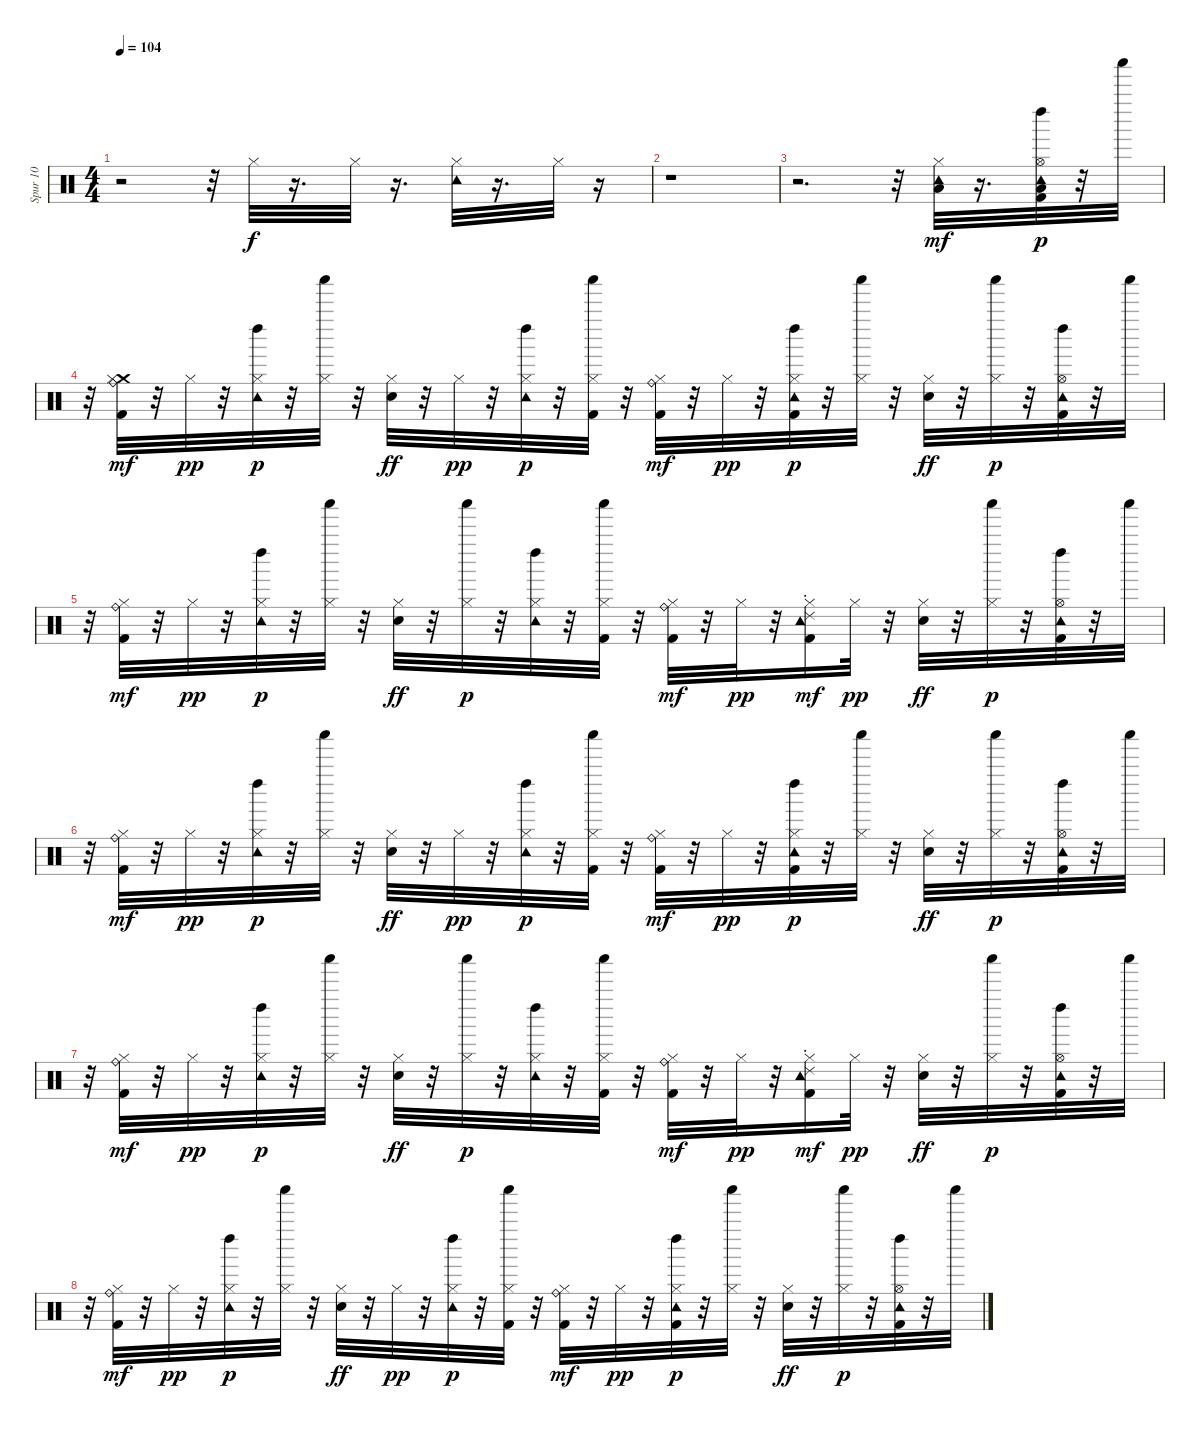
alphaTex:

\track ("Spur 10" "Spur 10") {instrument percussion}
\staff {score}
\articulation defaults
\ts (4 4)
\tempo 104
\clef neutral
\ks c
r.2{dy mp} r.32 "Hi-Hat (closed)".32{dy f} r.16{d} "Hi-Hat (closed)".32 r.16{d} ("Hi-Hat (closed)" "Tambourine (hit)").32 r.16{d} "Hi-Hat (closed)".32 r.16 |
r.1 |
r.2{d} r.32 ("Hi-Hat (closed)" "Low Tom (hit)" "Tambourine (hit)").32{dy mf} r.16{d} ("Low Floor Tom (hit)" "Hi-Hat (open)" "Tambourine (hit)" "Kick (hit) 2" "Left Maraca (hit)").32{dy p} r.32 "Shaker (hit)".32 |
r.32 ("Crash medium (hit)" "Hi-Hat (closed)" "Ride (bell)" "Kick (hit) 2").32{dy mf} r.32 "Hi-Hat (closed)".32{dy pp} r.32 ("Hi-Hat (closed)" "Tambourine (hit)" "Left Maraca (hit)").32{dy p} r.32 ("Hi-Hat (closed)" "Shaker (hit)").32 r.32 ("Hi-Hat (closed)" "Snare (hit) 2").32{dy ff} r.32 "Hi-Hat (closed)".32{dy pp} r.32 ("Hi-Hat (closed)" "Tambourine (hit)" "Left Maraca (hit)").32{dy p} r.32 ("Hi-Hat (closed)" "Kick (hit) 2" "Shaker (hit)").32 r.32 ("Hi-Hat (closed)" "Ride (bell)" "Kick (hit) 2").32{dy mf} r.32 "Hi-Hat (closed)".32{dy pp} r.32 ("Hi-Hat (closed)" "Tambourine (hit)" "Kick (hit) 2" "Left Maraca (hit)").32{dy p} r.32 ("Hi-Hat (closed)" "Shaker (hit)").32 r.32 ("Hi-Hat (closed)" "Snare (hit) 2").32{dy ff} r.32 ("Hi-Hat (closed)" "Shaker (hit)").32{dy p} r.32 ("Hi-Hat (open)" "Tambourine (hit)" "Kick (hit) 2" "Left Maraca (hit)").32 r.32 "Shaker (hit)".32 |
r.32 ("Hi-Hat (closed)" "Ride (bell)" "Kick (hit) 2").32{dy mf} r.32 "Hi-Hat (closed)".32{dy pp} r.32 ("Hi-Hat (closed)" "Tambourine (hit)" "Left Maraca (hit)").32{dy p} r.32 ("Hi-Hat (closed)" "Shaker (hit)").32 r.32 ("Hi-Hat (closed)" "Snare (hit) 2").32{dy ff} r.32 ("Hi-Hat (closed)" "Shaker (hit)").32{dy p} r.32 ("Hi-Hat (closed)" "Tambourine (hit)" "Left Maraca (hit)").32 r.32 ("Hi-Hat (closed)" "Kick (hit) 2" "Shaker (hit)").32 r.32 ("Hi-Hat (closed)" "Ride (bell)" "Kick (hit) 2").32{dy mf} r.32 "Hi-Hat (closed)".32{dy pp} r.32 ("Ride (choke) 2" "Hi-Hat (closed)" "Tambourine (hit)" "Kick (hit) 2").16{dy mf} "Hi-Hat (closed)".32{dy pp} r.32 ("Hi-Hat (closed)" "Snare (hit) 2").32{dy ff} r.32 ("Hi-Hat (closed)" "Shaker (hit)").32{dy p} r.32 ("Hi-Hat (open)" "Tambourine (hit)" "Kick (hit) 2" "Left Maraca (hit)").32 r.32 "Shaker (hit)".32 |
r.32 ("Hi-Hat (closed)" "Ride (bell)" "Kick (hit) 2").32{dy mf} r.32 "Hi-Hat (closed)".32{dy pp} r.32 ("Hi-Hat (closed)" "Tambourine (hit)" "Left Maraca (hit)").32{dy p} r.32 ("Hi-Hat (closed)" "Shaker (hit)").32 r.32 ("Hi-Hat (closed)" "Snare (hit) 2").32{dy ff} r.32 "Hi-Hat (closed)".32{dy pp} r.32 ("Hi-Hat (closed)" "Tambourine (hit)" "Left Maraca (hit)").32{dy p} r.32 ("Hi-Hat (closed)" "Kick (hit) 2" "Shaker (hit)").32 r.32 ("Hi-Hat (closed)" "Ride (bell)" "Kick (hit) 2").32{dy mf} r.32 "Hi-Hat (closed)".32{dy pp} r.32 ("Hi-Hat (closed)" "Tambourine (hit)" "Kick (hit) 2" "Left Maraca (hit)").32{dy p} r.32 ("Hi-Hat (closed)" "Shaker (hit)").32 r.32 ("Hi-Hat (closed)" "Snare (hit) 2").32{dy ff} r.32 ("Hi-Hat (closed)" "Shaker (hit)").32{dy p} r.32 ("Hi-Hat (open)" "Tambourine (hit)" "Kick (hit) 2" "Left Maraca (hit)").32 r.32 "Shaker (hit)".32 |
r.32 ("Hi-Hat (closed)" "Ride (bell)" "Kick (hit) 2").32{dy mf} r.32 "Hi-Hat (closed)".32{dy pp} r.32 ("Hi-Hat (closed)" "Tambourine (hit)" "Left Maraca (hit)").32{dy p} r.32 ("Hi-Hat (closed)" "Shaker (hit)").32 r.32 ("Hi-Hat (closed)" "Snare (hit) 2").32{dy ff} r.32 ("Hi-Hat (closed)" "Shaker (hit)").32{dy p} r.32 ("Hi-Hat (closed)" "Tambourine (hit)" "Left Maraca (hit)").32 r.32 ("Hi-Hat (closed)" "Kick (hit) 2" "Shaker (hit)").32 r.32 ("Hi-Hat (closed)" "Ride (bell)" "Kick (hit) 2").32{dy mf} r.32 "Hi-Hat (closed)".32{dy pp} r.32 ("Ride (choke) 2" "Hi-Hat (closed)" "Tambourine (hit)" "Kick (hit) 2").16{dy mf} "Hi-Hat (closed)".32{dy pp} r.32 ("Hi-Hat (closed)" "Snare (hit) 2").32{dy ff} r.32 ("Hi-Hat (closed)" "Shaker (hit)").32{dy p} r.32 ("Hi-Hat (open)" "Tambourine (hit)" "Kick (hit) 2" "Left Maraca (hit)").32 r.32 "Shaker (hit)".32 |
r.32 ("Hi-Hat (closed)" "Ride (bell)" "Kick (hit) 2").32{dy mf} r.32 "Hi-Hat (closed)".32{dy pp} r.32 ("Hi-Hat (closed)" "Tambourine (hit)" "Left Maraca (hit)").32{dy p} r.32 ("Hi-Hat (closed)" "Shaker (hit)").32 r.32 ("Hi-Hat (closed)" "Snare (hit) 2").32{dy ff} r.32 "Hi-Hat (closed)".32{dy pp} r.32 ("Hi-Hat (closed)" "Tambourine (hit)" "Left Maraca (hit)").32{dy p} r.32 ("Hi-Hat (closed)" "Kick (hit) 2" "Shaker (hit)").32 r.32 ("Hi-Hat (closed)" "Ride (bell)" "Kick (hit) 2").32{dy mf} r.32 "Hi-Hat (closed)".32{dy pp} r.32 ("Hi-Hat (closed)" "Tambourine (hit)" "Kick (hit) 2" "Left Maraca (hit)").32{dy p} r.32 ("Hi-Hat (closed)" "Shaker (hit)").32 r.32 ("Hi-Hat (closed)" "Snare (hit) 2").32{dy ff} r.32 ("Hi-Hat (closed)" "Shaker (hit)").32{dy p} r.32 ("Hi-Hat (open)" "Tambourine (hit)" "Kick (hit) 2" "Left Maraca (hit)").32 r.32 "Shaker (hit)".32
